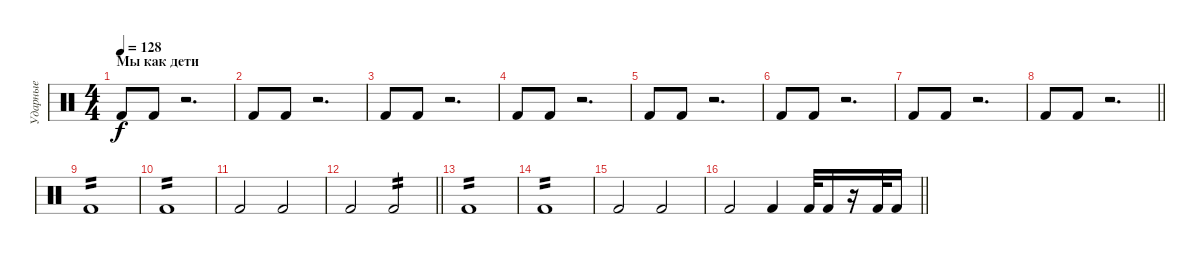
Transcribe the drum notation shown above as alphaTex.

\track ("Ударные" "Ударные") {instrument percussion}
\staff {score}
\articulation defaults
\ts (4 4)
\section ("" "Мы как дети")
\tempo 128
\clef neutral
\ks c "Kick (hit) 2".8{dy f} "Kick (hit) 2".8
r.2{d} |
"Kick (hit) 2".8 "Kick (hit) 2".8 r.2{d} |
"Kick (hit) 2".8 "Kick (hit) 2".8 r.2{d} |
"Kick (hit) 2".8 "Kick (hit) 2".8 r.2{d} |
"Kick (hit) 2".8 "Kick (hit) 2".8 r.2{d} |
"Kick (hit) 2".8 "Kick (hit) 2".8 r.2{d} |
"Kick (hit) 2".8 "Kick (hit) 2".8 r.2{d} |
\barLineRight lightlight "Kick (hit) 2".8 "Kick (hit) 2".8
r.2{d} |
"Kick (hit) 2".1{tp 2} |
"Kick (hit) 2".1{tp 2} |
"Kick (hit) 2".2 "Kick (hit) 2".2 |
\barLineRight lightlight "Kick (hit) 2".2 "Kick (hit) 2".2{tp 2}
|
"Kick (hit) 2".1{tp 2} |
"Kick (hit) 2".1{tp 2} |
"Kick (hit) 2".2 "Kick (hit) 2".2 |
\barLineRight lightlight "Kick (hit) 2".2 "Kick (hit) 2".4 "Kick (hit) 2".32 "Kick (hit) 2".16
r.16 "Kick (hit) 2".32 "Kick (hit) 2".16
